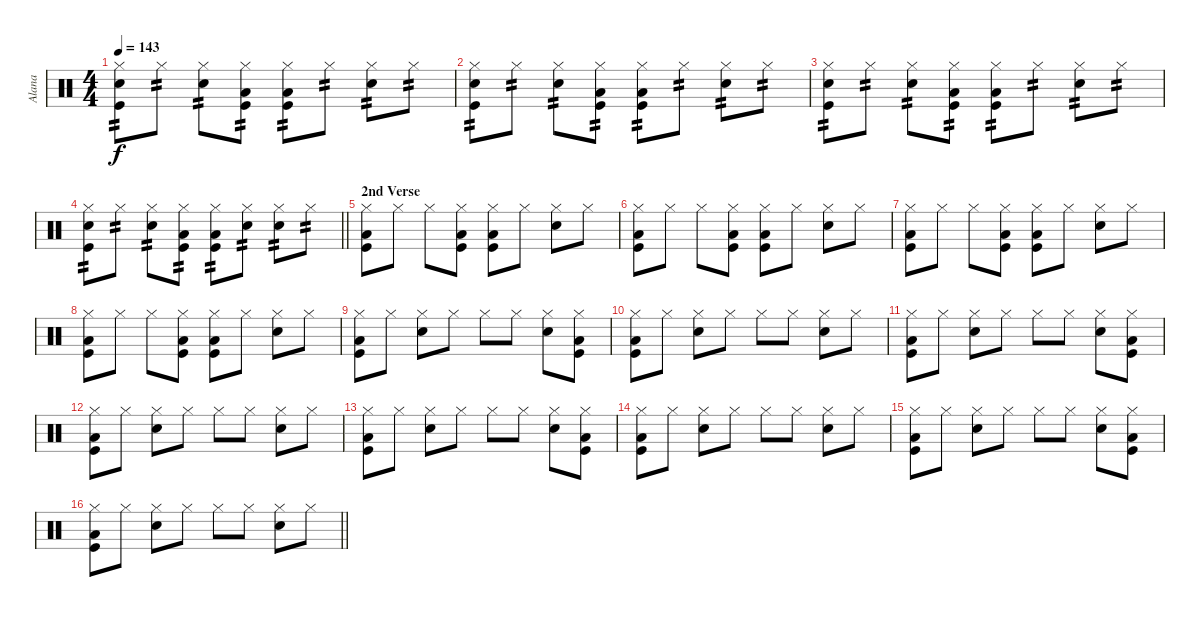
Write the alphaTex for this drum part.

\track ("Alana" "Alana") {instrument percussion}
\staff {score}
\articulation defaults
\ts (4 4)
\tempo 143
\clef neutral
\ks c
("Hi-Hat (closed)" "Snare (hit)" "Kick (hit)").8{tp 2 dy f} "Hi-Hat (closed)".8{tp 2} ("Hi-Hat (closed)" "Electric Snare (hit)").8{tp 2} ("Hi-Hat (closed)" "Low Floor Tom (hit)" "Kick (hit)").8{tp 2} ("Hi-Hat (closed)" "Low Floor Tom (hit)" "Kick (hit)").8{tp 2} "Hi-Hat (closed)".8{tp 2} ("Hi-Hat (closed)" "Electric Snare (hit)").8{tp 2} "Hi-Hat (closed)".8{tp 2} |
("Hi-Hat (closed)" "Snare (hit)" "Kick (hit)").8{tp 2} "Hi-Hat (closed)".8{tp 2} ("Hi-Hat (closed)" "Electric Snare (hit)").8{tp 2} ("Hi-Hat (closed)" "Low Floor Tom (hit)" "Kick (hit)").8{tp 2} ("Hi-Hat (closed)" "Low Floor Tom (hit)" "Kick (hit)").8{tp 2} "Hi-Hat (closed)".8{tp 2} ("Hi-Hat (closed)" "Electric Snare (hit)").8{tp 2} "Hi-Hat (closed)".8{tp 2} |
("Hi-Hat (closed)" "Snare (hit)" "Kick (hit)").8{tp 2} "Hi-Hat (closed)".8{tp 2} ("Hi-Hat (closed)" "Electric Snare (hit)").8{tp 2} ("Hi-Hat (closed)" "Low Floor Tom (hit)" "Kick (hit)").8{tp 2} ("Hi-Hat (closed)" "Low Floor Tom (hit)" "Kick (hit)").8{tp 2} "Hi-Hat (closed)".8{tp 2} ("Hi-Hat (closed)" "Electric Snare (hit)").8{tp 2} "Hi-Hat (closed)".8{tp 2} |
\barLineRight lightlight
("Hi-Hat (closed)" "Snare (hit)" "Kick (hit)").8{tp 2} "Hi-Hat (closed)".8{tp 2} ("Hi-Hat (closed)" "Electric Snare (hit)").8{tp 2} ("Hi-Hat (closed)" "Low Floor Tom (hit)" "Kick (hit)").8{tp 2} ("Hi-Hat (closed)" "Low Floor Tom (hit)" "Kick (hit)").8{tp 2} ("Hi-Hat (closed)" "Hand Clap (hit)").8{tp 2} ("Hi-Hat (closed)" "Hand Clap (hit)").8{tp 2} "Hi-Hat (closed)".8{tp 2} |
\section ("" "2nd Verse")
("Hi-Hat (closed)" "Low Floor Tom (hit)" "Kick (hit)").8 "Hi-Hat (closed)".8 "Hi-Hat (closed)".8 ("Hi-Hat (closed)" "Low Floor Tom (hit)" "Kick (hit)").8 ("Hi-Hat (closed)" "Low Floor Tom (hit)" "Kick (hit)").8 "Hi-Hat (closed)".8 ("Hi-Hat (closed)" "Electric Snare (hit)").8 "Hi-Hat (closed)".8 |
("Hi-Hat (closed)" "Low Floor Tom (hit)" "Kick (hit)").8 "Hi-Hat (closed)".8 "Hi-Hat (closed)".8 ("Hi-Hat (closed)" "Low Floor Tom (hit)" "Kick (hit)").8 ("Hi-Hat (closed)" "Low Floor Tom (hit)" "Kick (hit)").8 "Hi-Hat (closed)".8 ("Hi-Hat (closed)" "Electric Snare (hit)").8 "Hi-Hat (closed)".8 |
("Hi-Hat (closed)" "Low Floor Tom (hit)" "Kick (hit)").8 "Hi-Hat (closed)".8 "Hi-Hat (closed)".8 ("Hi-Hat (closed)" "Low Floor Tom (hit)" "Kick (hit)").8 ("Hi-Hat (closed)" "Low Floor Tom (hit)" "Kick (hit)").8 "Hi-Hat (closed)".8 ("Hi-Hat (closed)" "Electric Snare (hit)").8 "Hi-Hat (closed)".8 |
("Hi-Hat (closed)" "Low Floor Tom (hit)" "Kick (hit)").8 "Hi-Hat (closed)".8 "Hi-Hat (closed)".8 ("Hi-Hat (closed)" "Low Floor Tom (hit)" "Kick (hit)").8 ("Hi-Hat (closed)" "Low Floor Tom (hit)" "Kick (hit)").8 "Hi-Hat (closed)".8 ("Hi-Hat (closed)" "Electric Snare (hit)").8 "Hi-Hat (closed)".8 |
("Hi-Hat (closed)" "Low Floor Tom (hit)" "Kick (hit)").8 "Hi-Hat (closed)".8 ("Hi-Hat (closed)" "Electric Snare (hit)").8 "Hi-Hat (closed)".8 "Hi-Hat (closed)".8 "Hi-Hat (closed)".8 ("Hi-Hat (closed)" "Electric Snare (hit)").8 ("Hi-Hat (closed)" "Low Floor Tom (hit)" "Kick (hit)").8 |
("Hi-Hat (closed)" "Low Floor Tom (hit)" "Kick (hit)").8 "Hi-Hat (closed)".8 ("Hi-Hat (closed)" "Electric Snare (hit)").8 "Hi-Hat (closed)".8 "Hi-Hat (closed)".8 "Hi-Hat (closed)".8 ("Hi-Hat (closed)" "Electric Snare (hit)").8 "Hi-Hat (closed)".8 |
("Hi-Hat (closed)" "Low Floor Tom (hit)" "Kick (hit)").8 "Hi-Hat (closed)".8 ("Hi-Hat (closed)" "Electric Snare (hit)").8 "Hi-Hat (closed)".8 "Hi-Hat (closed)".8 "Hi-Hat (closed)".8 ("Hi-Hat (closed)" "Electric Snare (hit)").8 ("Hi-Hat (closed)" "Low Floor Tom (hit)" "Kick (hit)").8 |
("Hi-Hat (closed)" "Low Floor Tom (hit)" "Kick (hit)").8 "Hi-Hat (closed)".8 ("Hi-Hat (closed)" "Electric Snare (hit)").8 "Hi-Hat (closed)".8 "Hi-Hat (closed)".8 "Hi-Hat (closed)".8 ("Hi-Hat (closed)" "Electric Snare (hit)").8 "Hi-Hat (closed)".8 |
("Hi-Hat (closed)" "Low Floor Tom (hit)" "Kick (hit)").8 "Hi-Hat (closed)".8 ("Hi-Hat (closed)" "Electric Snare (hit)").8 "Hi-Hat (closed)".8 "Hi-Hat (closed)".8 "Hi-Hat (closed)".8 ("Hi-Hat (closed)" "Electric Snare (hit)").8 ("Hi-Hat (closed)" "Low Floor Tom (hit)" "Kick (hit)").8 |
("Hi-Hat (closed)" "Low Floor Tom (hit)" "Kick (hit)").8 "Hi-Hat (closed)".8 ("Hi-Hat (closed)" "Electric Snare (hit)").8 "Hi-Hat (closed)".8 "Hi-Hat (closed)".8 "Hi-Hat (closed)".8 ("Hi-Hat (closed)" "Electric Snare (hit)").8 "Hi-Hat (closed)".8 |
("Hi-Hat (closed)" "Low Floor Tom (hit)" "Kick (hit)").8 "Hi-Hat (closed)".8 ("Hi-Hat (closed)" "Electric Snare (hit)").8 "Hi-Hat (closed)".8 "Hi-Hat (closed)".8 "Hi-Hat (closed)".8 ("Hi-Hat (closed)" "Electric Snare (hit)").8 ("Hi-Hat (closed)" "Low Floor Tom (hit)" "Kick (hit)").8 |
\barLineRight lightlight
("Hi-Hat (closed)" "Low Floor Tom (hit)" "Kick (hit)").8 "Hi-Hat (closed)".8 ("Hi-Hat (closed)" "Electric Snare (hit)").8 "Hi-Hat (closed)".8 "Hi-Hat (closed)".8 "Hi-Hat (closed)".8 ("Hi-Hat (closed)" "Electric Snare (hit)").8 "Hi-Hat (closed)".8
